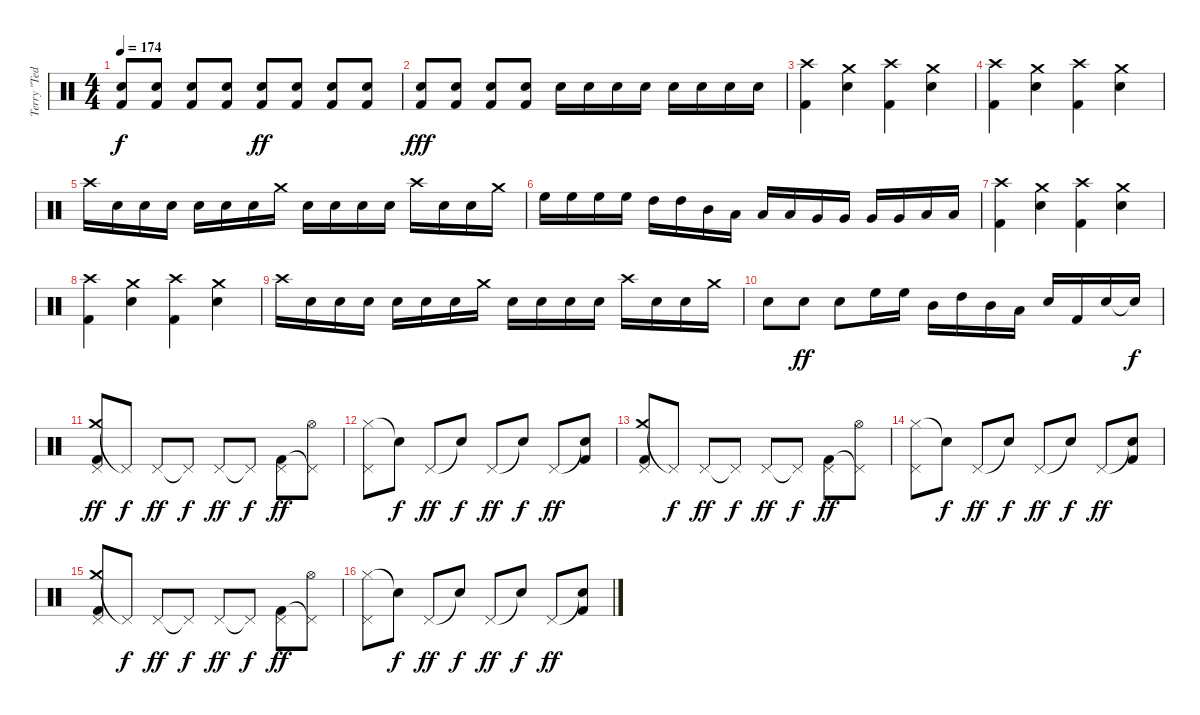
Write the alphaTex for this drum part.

\track ("Terry \"Ted\" Bozzio" "Terry \"Ted") {instrument percussion}
\staff {score}
\articulation defaults
\ts (4 4)
\tempo 174
\clef neutral
\ks c
("Electric Snare (hit)" "Kick (hit) 2").8{dy f} ("Electric Snare (hit)" "Kick (hit) 2").8 ("Electric Snare (hit)" "Kick (hit) 2").8 ("Electric Snare (hit)" "Kick (hit) 2").8 ("Electric Snare (hit)" "Kick (hit) 2").8{dy ff} ("Electric Snare (hit)" "Kick (hit) 2").8 ("Electric Snare (hit)" "Kick (hit) 2").8 ("Electric Snare (hit)" "Kick (hit) 2").8 |
("Electric Snare (hit)" "Kick (hit) 2").8{dy fff} ("Electric Snare (hit)" "Kick (hit) 2").8 ("Electric Snare (hit)" "Kick (hit) 2").8 ("Electric Snare (hit)" "Kick (hit) 2").8 "Electric Snare (hit)".16 "Electric Snare (hit)".16 "Electric Snare (hit)".16 "Electric Snare (hit)".16 "Electric Snare (hit)".16 "Electric Snare (hit)".16 "Electric Snare (hit)".16 "Electric Snare (hit)".16 |
("Crash high (hit)" "Kick (hit) 2").4 ("Crash medium (hit)" "Electric Snare (hit)").4 ("Crash high (hit)" "Kick (hit) 2").4 ("Crash medium (hit)" "Electric Snare (hit)").4 |
("Crash high (hit)" "Kick (hit) 2").4 ("Crash medium (hit)" "Electric Snare (hit)").4 ("Crash high (hit)" "Kick (hit) 2").4 ("Crash medium (hit)" "Electric Snare (hit)").4 |
"Crash high (hit)".16 "Electric Snare (hit)".16 "Electric Snare (hit)".16 "Electric Snare (hit)".16 "Electric Snare (hit)".16 "Electric Snare (hit)".16 "Electric Snare (hit)".16 "Crash medium (hit)".16 "Electric Snare (hit)".16 "Electric Snare (hit)".16 "Electric Snare (hit)".16 "Electric Snare (hit)".16 "Crash high (hit)".16 "Electric Snare (hit)".16 "Electric Snare (hit)".16 "Crash medium (hit)".16 |
"High Floor Tom (hit)".16 "High Floor Tom (hit)".16 "High Floor Tom (hit)".16 "High Floor Tom (hit)".16 "High Tom (hit)".16 "High Tom (hit)".16 "Mid Tom (hit)".16 "Low Tom (hit)".16 "Low Tom (hit)".16 "Low Tom (hit)".16 "Very Low Tom (hit)".16 "Very Low Tom (hit)".16 "Very Low Tom (hit)".16 "Very Low Tom (hit)".16 "Low Floor Tom (hit)".16 "Low Floor Tom (hit)".16 |
("Crash high (hit)" "Kick (hit) 2").4 ("Crash medium (hit)" "Electric Snare (hit)").4 ("Crash high (hit)" "Kick (hit) 2").4 ("Crash medium (hit)" "Electric Snare (hit)").4 |
("Crash high (hit)" "Kick (hit) 2").4 ("Crash medium (hit)" "Electric Snare (hit)").4 ("Crash high (hit)" "Kick (hit) 2").4 ("Crash medium (hit)" "Electric Snare (hit)").4 |
"Crash high (hit)".16 "Electric Snare (hit)".16 "Electric Snare (hit)".16 "Electric Snare (hit)".16 "Electric Snare (hit)".16 "Electric Snare (hit)".16 "Electric Snare (hit)".16 "Crash medium (hit)".16 "Electric Snare (hit)".16 "Electric Snare (hit)".16 "Electric Snare (hit)".16 "Electric Snare (hit)".16 "Crash high (hit)".16 "Electric Snare (hit)".16 "Electric Snare (hit)".16 "Crash medium (hit)".16 |
"Electric Snare (hit)".8 "Electric Snare (hit)".8{dy ff} "Electric Snare (hit)".8 "High Floor Tom (hit)".16 "High Floor Tom (hit)".16 "Mid Tom (hit)".16 "High Tom (hit)".16 "Mid Tom (hit)".16 "Low Tom (hit)".16 "Electric Snare (hit)".16 "Kick (hit) 2".16 "Electric Snare (hit)".16 "Snare (hit)"{t}.16{dy f} |
("Crash medium (hit)" "Pedal Hi-Hat (hit)" "Kick (hit) 2").8{dy ff} "Pedal Hi-Hat (hit)"{t}.8{dy f} "Pedal Hi-Hat (hit)".8{dy ff} "Pedal Hi-Hat (hit)"{t}.8{dy f} "Pedal Hi-Hat (hit)".8{dy ff} "Pedal Hi-Hat (hit)"{t}.8{dy f} ("Pedal Hi-Hat (hit)" "Kick (hit) 2").8{dy ff} ("Hi-Hat (open)" "Pedal Hi-Hat (hit)"{t}).8 |
("Hi-Hat (closed)" "Pedal Hi-Hat (hit)").8 "Snare (hit)"{t}.8{dy f} "Pedal Hi-Hat (hit)".8{dy ff} "Snare (hit)"{t}.8{dy f} "Pedal Hi-Hat (hit)".8{dy ff} "Snare (hit)"{t}.8{dy f} "Pedal Hi-Hat (hit)".8{dy ff} ("Snare (hit)"{t} "Kick (hit) 2").8 |
("Crash medium (hit)" "Pedal Hi-Hat (hit)" "Kick (hit) 2").8 "Pedal Hi-Hat (hit)"{t}.8{dy f} "Pedal Hi-Hat (hit)".8{dy ff} "Pedal Hi-Hat (hit)"{t}.8{dy f} "Pedal Hi-Hat (hit)".8{dy ff} "Pedal Hi-Hat (hit)"{t}.8{dy f} ("Pedal Hi-Hat (hit)" "Kick (hit) 2").8{dy ff} ("Hi-Hat (open)" "Pedal Hi-Hat (hit)"{t}).8 |
("Hi-Hat (closed)" "Pedal Hi-Hat (hit)").8 "Snare (hit)"{t}.8{dy f} "Pedal Hi-Hat (hit)".8{dy ff} "Snare (hit)"{t}.8{dy f} "Pedal Hi-Hat (hit)".8{dy ff} "Snare (hit)"{t}.8{dy f} "Pedal Hi-Hat (hit)".8{dy ff} ("Snare (hit)"{t} "Kick (hit) 2").8 |
("Crash medium (hit)" "Pedal Hi-Hat (hit)" "Kick (hit) 2").8 "Pedal Hi-Hat (hit)"{t}.8{dy f} "Pedal Hi-Hat (hit)".8{dy ff} "Pedal Hi-Hat (hit)"{t}.8{dy f} "Pedal Hi-Hat (hit)".8{dy ff} "Pedal Hi-Hat (hit)"{t}.8{dy f} ("Pedal Hi-Hat (hit)" "Kick (hit) 2").8{dy ff} ("Hi-Hat (open)" "Pedal Hi-Hat (hit)"{t}).8 |
("Hi-Hat (closed)" "Pedal Hi-Hat (hit)").8 "Snare (hit)"{t}.8{dy f} "Pedal Hi-Hat (hit)".8{dy ff} "Snare (hit)"{t}.8{dy f} "Pedal Hi-Hat (hit)".8{dy ff} "Snare (hit)"{t}.8{dy f} "Pedal Hi-Hat (hit)".8{dy ff} ("Snare (hit)"{t} "Kick (hit) 2").8
